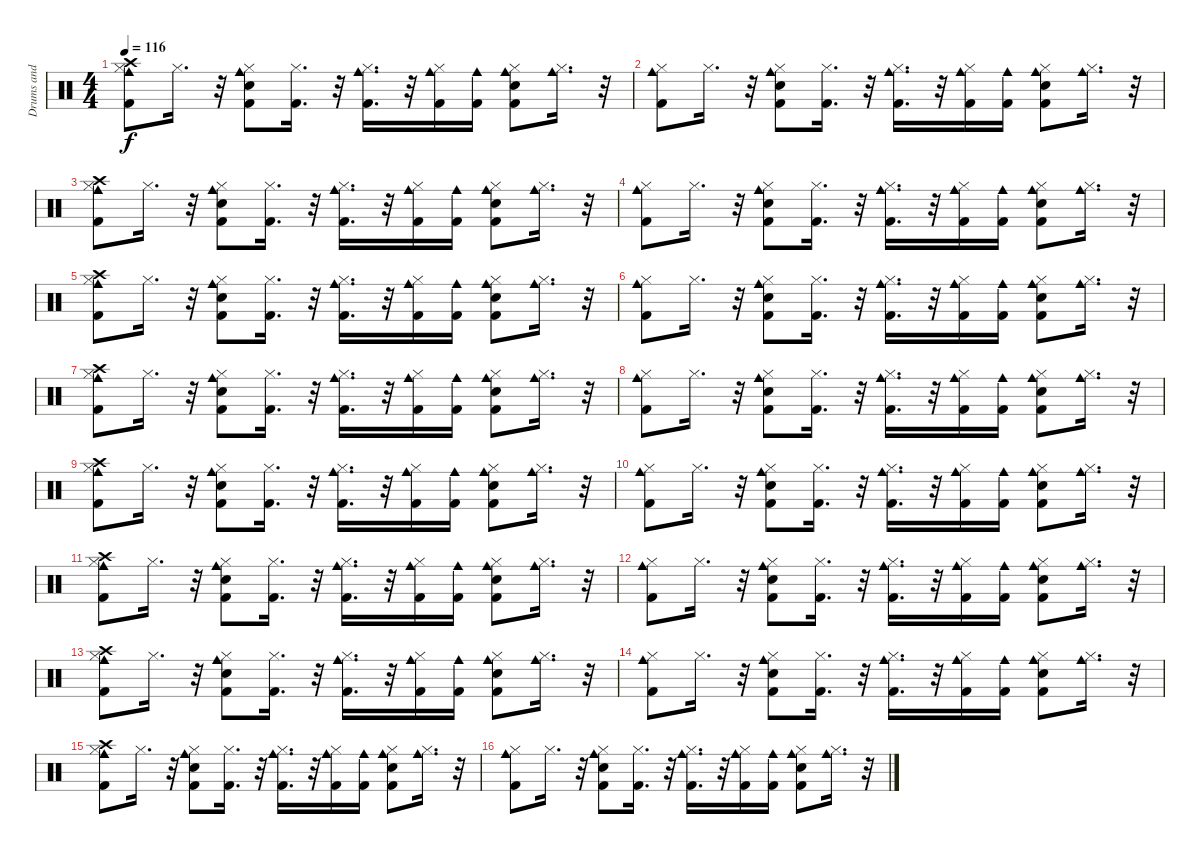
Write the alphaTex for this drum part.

\track ("Drums and Cowbell" "Drums and ") {instrument percussion}
\staff {score}
\articulation defaults
\ts (4 4)
\tempo 116
\clef neutral
\ks c
("Kick (hit) 2" "Hi-Hat (closed)" "Crash high (hit)" "Cowbell medium (hit)").8{dy f} "Hi-Hat (closed)".16{d} r.32 ("Snare (hit) 2" "Kick (hit) 2" "Hi-Hat (closed)" "Cowbell medium (hit)").8 ("Kick (hit) 2" "Hi-Hat (closed)").16{d} r.32 ("Hi-Hat (closed)" "Kick (hit) 2" "Cowbell medium (hit)").16{d} r.32 ("Kick (hit) 2" "Hi-Hat (closed)" "Cowbell medium (hit)").16 ("Kick (hit) 2" "Cowbell medium (hit)").16 ("Kick (hit) 2" "Snare (hit) 2" "Hi-Hat (closed)" "Cowbell medium (hit)").8 ("Hi-Hat (closed)" "Cowbell medium (hit)").16{d} r.32 |
("Kick (hit) 2" "Hi-Hat (closed)" "Cowbell medium (hit)").8 "Hi-Hat (closed)".16{d} r.32 ("Snare (hit) 2" "Kick (hit) 2" "Hi-Hat (closed)" "Cowbell medium (hit)").8 ("Kick (hit) 2" "Hi-Hat (closed)").16{d} r.32 ("Hi-Hat (closed)" "Kick (hit) 2" "Cowbell medium (hit)").16{d} r.32 ("Kick (hit) 2" "Hi-Hat (closed)" "Cowbell medium (hit)").16 ("Kick (hit) 2" "Cowbell medium (hit)").16 ("Kick (hit) 2" "Snare (hit) 2" "Hi-Hat (closed)" "Cowbell medium (hit)").8 ("Hi-Hat (closed)" "Cowbell medium (hit)").16{d} r.32 |
("Kick (hit) 2" "Hi-Hat (closed)" "Crash high (hit)" "Cowbell medium (hit)").8 "Hi-Hat (closed)".16{d} r.32 ("Snare (hit) 2" "Kick (hit) 2" "Hi-Hat (closed)" "Cowbell medium (hit)").8 ("Kick (hit) 2" "Hi-Hat (closed)").16{d} r.32 ("Hi-Hat (closed)" "Kick (hit) 2" "Cowbell medium (hit)").16{d} r.32 ("Kick (hit) 2" "Hi-Hat (closed)" "Cowbell medium (hit)").16 ("Kick (hit) 2" "Cowbell medium (hit)").16 ("Kick (hit) 2" "Snare (hit) 2" "Hi-Hat (closed)" "Cowbell medium (hit)").8 ("Hi-Hat (closed)" "Cowbell medium (hit)").16{d} r.32 |
("Kick (hit) 2" "Hi-Hat (closed)" "Cowbell medium (hit)").8 "Hi-Hat (closed)".16{d} r.32 ("Snare (hit) 2" "Kick (hit) 2" "Hi-Hat (closed)" "Cowbell medium (hit)").8 ("Kick (hit) 2" "Hi-Hat (closed)").16{d} r.32 ("Hi-Hat (closed)" "Kick (hit) 2" "Cowbell medium (hit)").16{d} r.32 ("Kick (hit) 2" "Hi-Hat (closed)" "Cowbell medium (hit)").16 ("Kick (hit) 2" "Cowbell medium (hit)").16 ("Kick (hit) 2" "Snare (hit) 2" "Hi-Hat (closed)" "Cowbell medium (hit)").8 ("Hi-Hat (closed)" "Cowbell medium (hit)").16{d} r.32 |
("Kick (hit) 2" "Hi-Hat (closed)" "Crash high (hit)" "Cowbell medium (hit)").8 "Hi-Hat (closed)".16{d} r.32 ("Snare (hit) 2" "Kick (hit) 2" "Hi-Hat (closed)" "Cowbell medium (hit)").8 ("Kick (hit) 2" "Hi-Hat (closed)").16{d} r.32 ("Hi-Hat (closed)" "Kick (hit) 2" "Cowbell medium (hit)").16{d} r.32 ("Kick (hit) 2" "Hi-Hat (closed)" "Cowbell medium (hit)").16 ("Kick (hit) 2" "Cowbell medium (hit)").16 ("Kick (hit) 2" "Snare (hit) 2" "Hi-Hat (closed)" "Cowbell medium (hit)").8 ("Hi-Hat (closed)" "Cowbell medium (hit)").16{d} r.32 |
("Kick (hit) 2" "Hi-Hat (closed)" "Cowbell medium (hit)").8 "Hi-Hat (closed)".16{d} r.32 ("Snare (hit) 2" "Kick (hit) 2" "Hi-Hat (closed)" "Cowbell medium (hit)").8 ("Kick (hit) 2" "Hi-Hat (closed)").16{d} r.32 ("Hi-Hat (closed)" "Kick (hit) 2" "Cowbell medium (hit)").16{d} r.32 ("Kick (hit) 2" "Hi-Hat (closed)" "Cowbell medium (hit)").16 ("Kick (hit) 2" "Cowbell medium (hit)").16 ("Kick (hit) 2" "Snare (hit) 2" "Hi-Hat (closed)" "Cowbell medium (hit)").8 ("Hi-Hat (closed)" "Cowbell medium (hit)").16{d} r.32 |
("Kick (hit) 2" "Hi-Hat (closed)" "Cowbell medium (hit)" "Crash high (hit)").8 "Hi-Hat (closed)".16{d} r.32 ("Snare (hit) 2" "Kick (hit) 2" "Hi-Hat (closed)" "Cowbell medium (hit)").8 ("Kick (hit) 2" "Hi-Hat (closed)").16{d} r.32 ("Hi-Hat (closed)" "Kick (hit) 2" "Cowbell medium (hit)").16{d} r.32 ("Kick (hit) 2" "Hi-Hat (closed)" "Cowbell medium (hit)").16 ("Kick (hit) 2" "Cowbell medium (hit)").16 ("Kick (hit) 2" "Snare (hit) 2" "Hi-Hat (closed)" "Cowbell medium (hit)").8 ("Hi-Hat (closed)" "Cowbell medium (hit)").16{d} r.32 |
("Kick (hit) 2" "Hi-Hat (closed)" "Cowbell medium (hit)").8 "Hi-Hat (closed)".16{d} r.32 ("Snare (hit) 2" "Kick (hit) 2" "Hi-Hat (closed)" "Cowbell medium (hit)").8 ("Kick (hit) 2" "Hi-Hat (closed)").16{d} r.32 ("Hi-Hat (closed)" "Kick (hit) 2" "Cowbell medium (hit)").16{d} r.32 ("Kick (hit) 2" "Hi-Hat (closed)" "Cowbell medium (hit)").16 ("Kick (hit) 2" "Cowbell medium (hit)").16 ("Kick (hit) 2" "Snare (hit) 2" "Hi-Hat (closed)" "Cowbell medium (hit)").8 ("Hi-Hat (closed)" "Cowbell medium (hit)").16{d} r.32 |
("Kick (hit) 2" "Hi-Hat (closed)" "Crash high (hit)" "Cowbell medium (hit)").8 "Hi-Hat (closed)".16{d} r.32 ("Snare (hit) 2" "Kick (hit) 2" "Hi-Hat (closed)" "Cowbell medium (hit)").8 ("Kick (hit) 2" "Hi-Hat (closed)").16{d} r.32 ("Hi-Hat (closed)" "Kick (hit) 2" "Cowbell medium (hit)").16{d} r.32 ("Kick (hit) 2" "Hi-Hat (closed)" "Cowbell medium (hit)").16 ("Kick (hit) 2" "Cowbell medium (hit)").16 ("Kick (hit) 2" "Snare (hit) 2" "Hi-Hat (closed)" "Cowbell medium (hit)").8 ("Hi-Hat (closed)" "Cowbell medium (hit)").16{d} r.32 |
("Kick (hit) 2" "Hi-Hat (closed)" "Cowbell medium (hit)").8 "Hi-Hat (closed)".16{d} r.32 ("Snare (hit) 2" "Kick (hit) 2" "Hi-Hat (closed)" "Cowbell medium (hit)").8 ("Kick (hit) 2" "Hi-Hat (closed)").16{d} r.32 ("Hi-Hat (closed)" "Kick (hit) 2" "Cowbell medium (hit)").16{d} r.32 ("Kick (hit) 2" "Hi-Hat (closed)" "Cowbell medium (hit)").16 ("Kick (hit) 2" "Cowbell medium (hit)").16 ("Kick (hit) 2" "Snare (hit) 2" "Hi-Hat (closed)" "Cowbell medium (hit)").8 ("Hi-Hat (closed)" "Cowbell medium (hit)").16{d} r.32 |
("Kick (hit) 2" "Hi-Hat (closed)" "Crash high (hit)" "Cowbell medium (hit)").8 "Hi-Hat (closed)".16{d} r.32 ("Snare (hit) 2" "Kick (hit) 2" "Hi-Hat (closed)" "Cowbell medium (hit)").8 ("Kick (hit) 2" "Hi-Hat (closed)").16{d} r.32 ("Hi-Hat (closed)" "Kick (hit) 2" "Cowbell medium (hit)").16{d} r.32 ("Kick (hit) 2" "Hi-Hat (closed)" "Cowbell medium (hit)").16 ("Kick (hit) 2" "Cowbell medium (hit)").16 ("Kick (hit) 2" "Snare (hit) 2" "Hi-Hat (closed)" "Cowbell medium (hit)").8 ("Hi-Hat (closed)" "Cowbell medium (hit)").16{d} r.32 |
("Kick (hit) 2" "Hi-Hat (closed)" "Cowbell medium (hit)").8 "Hi-Hat (closed)".16{d} r.32 ("Snare (hit) 2" "Kick (hit) 2" "Hi-Hat (closed)" "Cowbell medium (hit)").8 ("Kick (hit) 2" "Hi-Hat (closed)").16{d} r.32 ("Hi-Hat (closed)" "Kick (hit) 2" "Cowbell medium (hit)").16{d} r.32 ("Kick (hit) 2" "Hi-Hat (closed)" "Cowbell medium (hit)").16 ("Kick (hit) 2" "Cowbell medium (hit)").16 ("Kick (hit) 2" "Snare (hit) 2" "Hi-Hat (closed)" "Cowbell medium (hit)").8 ("Hi-Hat (closed)" "Cowbell medium (hit)").16{d} r.32 |
("Kick (hit) 2" "Hi-Hat (closed)" "Crash high (hit)" "Cowbell medium (hit)").8 "Hi-Hat (closed)".16{d} r.32 ("Snare (hit) 2" "Kick (hit) 2" "Hi-Hat (closed)" "Cowbell medium (hit)").8 ("Kick (hit) 2" "Hi-Hat (closed)").16{d} r.32 ("Hi-Hat (closed)" "Kick (hit) 2" "Cowbell medium (hit)").16{d} r.32 ("Kick (hit) 2" "Hi-Hat (closed)" "Cowbell medium (hit)").16 ("Kick (hit) 2" "Cowbell medium (hit)").16 ("Kick (hit) 2" "Snare (hit) 2" "Hi-Hat (closed)" "Cowbell medium (hit)").8 ("Hi-Hat (closed)" "Cowbell medium (hit)").16{d} r.32 |
("Kick (hit) 2" "Hi-Hat (closed)" "Cowbell medium (hit)").8 "Hi-Hat (closed)".16{d} r.32 ("Snare (hit) 2" "Kick (hit) 2" "Hi-Hat (closed)" "Cowbell medium (hit)").8 ("Kick (hit) 2" "Hi-Hat (closed)").16{d} r.32 ("Hi-Hat (closed)" "Kick (hit) 2" "Cowbell medium (hit)").16{d} r.32 ("Kick (hit) 2" "Hi-Hat (closed)" "Cowbell medium (hit)").16 ("Kick (hit) 2" "Cowbell medium (hit)").16 ("Kick (hit) 2" "Snare (hit) 2" "Hi-Hat (closed)" "Cowbell medium (hit)").8 ("Hi-Hat (closed)" "Cowbell medium (hit)").16{d} r.32 |
("Kick (hit) 2" "Hi-Hat (closed)" "Cowbell medium (hit)" "Crash high (hit)").8 "Hi-Hat (closed)".16{d} r.32 ("Snare (hit) 2" "Kick (hit) 2" "Hi-Hat (closed)" "Cowbell medium (hit)").8 ("Kick (hit) 2" "Hi-Hat (closed)").16{d} r.32 ("Hi-Hat (closed)" "Kick (hit) 2" "Cowbell medium (hit)").16{d} r.32 ("Kick (hit) 2" "Hi-Hat (closed)" "Cowbell medium (hit)").16 ("Kick (hit) 2" "Cowbell medium (hit)").16 ("Kick (hit) 2" "Snare (hit) 2" "Hi-Hat (closed)" "Cowbell medium (hit)").8 ("Hi-Hat (closed)" "Cowbell medium (hit)").16{d} r.32 |
("Kick (hit) 2" "Hi-Hat (closed)" "Cowbell medium (hit)").8 "Hi-Hat (closed)".16{d} r.32 ("Snare (hit) 2" "Kick (hit) 2" "Hi-Hat (closed)" "Cowbell medium (hit)").8 ("Kick (hit) 2" "Hi-Hat (closed)").16{d} r.32 ("Hi-Hat (closed)" "Kick (hit) 2" "Cowbell medium (hit)").16{d} r.32 ("Kick (hit) 2" "Hi-Hat (closed)" "Cowbell medium (hit)").16 ("Kick (hit) 2" "Cowbell medium (hit)").16 ("Kick (hit) 2" "Snare (hit) 2" "Hi-Hat (closed)" "Cowbell medium (hit)").8 ("Hi-Hat (closed)" "Cowbell medium (hit)").16{d} r.32
